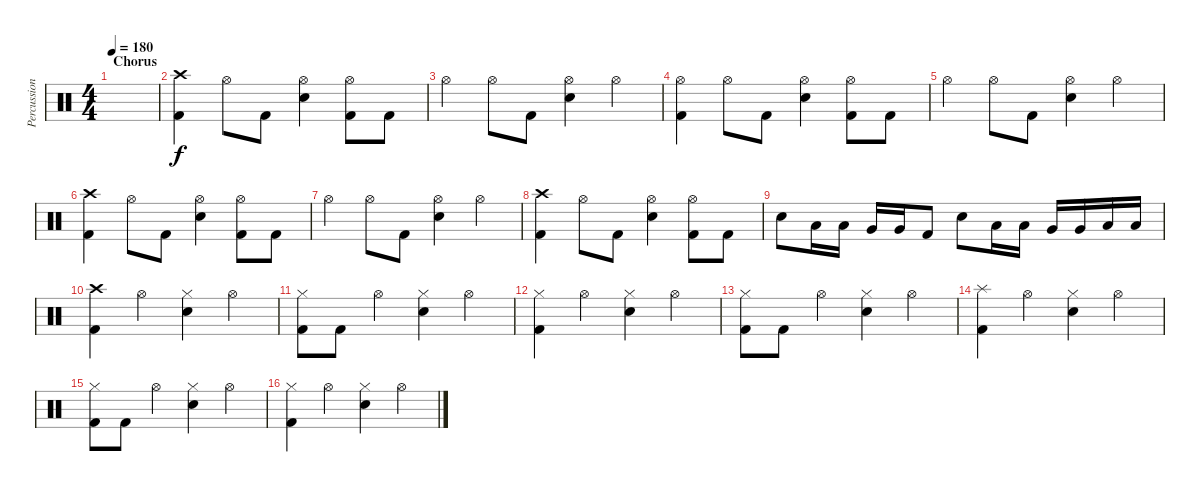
\track ("Percussion" "Percussion") {instrument percussion}
\staff {score}
\articulation defaults
\ts (4 4)
\section ("" "Chorus")
\tempo 180
\clef neutral
\ks c
|
("Crash high (hit)" "Kick (hit) 2").4 "Hi-Hat (open)".8 "Kick (hit) 2".8 ("Hi-Hat (open)" "Electric Snare (hit)").4 ("Hi-Hat (open)" "Kick (hit) 2").8 "Kick (hit) 2".8 |
"Hi-Hat (open)".4 "Hi-Hat (open)".8 "Kick (hit) 2".8 ("Hi-Hat (open)" "Electric Snare (hit)").4 "Hi-Hat (open)".4 |
("Hi-Hat (open)" "Kick (hit) 2").4 "Hi-Hat (open)".8 "Kick (hit) 2".8 ("Hi-Hat (open)" "Electric Snare (hit)").4 ("Hi-Hat (open)" "Kick (hit) 2").8 "Kick (hit) 2".8 |
"Hi-Hat (open)".4 "Hi-Hat (open)".8 "Kick (hit) 2".8 ("Hi-Hat (open)" "Electric Snare (hit)").4 "Hi-Hat (open)".4 |
("Crash high (hit)" "Kick (hit) 2").4 "Hi-Hat (open)".8 "Kick (hit) 2".8 ("Hi-Hat (open)" "Electric Snare (hit)").4 ("Hi-Hat (open)" "Kick (hit) 2").8 "Kick (hit) 2".8 |
"Hi-Hat (open)".4 "Hi-Hat (open)".8 "Kick (hit) 2".8 ("Hi-Hat (open)" "Electric Snare (hit)").4 "Hi-Hat (open)".4 |
("Crash high (hit)" "Kick (hit) 2").4 "Hi-Hat (open)".8 "Kick (hit) 2".8 ("Hi-Hat (open)" "Electric Snare (hit)").4 ("Hi-Hat (open)" "Kick (hit) 2").8 "Kick (hit) 2".8 |
"Electric Snare (hit)".8 "Low Tom (hit)".16 "Low Tom (hit)".16 "Very Low Tom (hit)".16 "Very Low Tom (hit)".16 "Kick (hit) 2".8 "Electric Snare (hit)".8 "Low Tom (hit)".16 "Low Tom (hit)".16 "Very Low Tom (hit)".16 "Very Low Tom (hit)".16 "Low Floor Tom (hit)".16 "Low Floor Tom (hit)".16 |
("Crash high (hit)" "Kick (hit) 2").4 "Hi-Hat (open)".4 ("Hi-Hat (closed)" "Electric Snare (hit)").4 "Hi-Hat (open)".4 |
("Hi-Hat (closed)" "Kick (hit) 2").8 "Kick (hit) 2".8 "Hi-Hat (open)".4 ("Hi-Hat (closed)" "Electric Snare (hit)").4 "Hi-Hat (open)".4 |
("Hi-Hat (closed)" "Kick (hit) 2").4 "Hi-Hat (open)".4 ("Hi-Hat (closed)" "Electric Snare (hit)").4 "Hi-Hat (open)".4 |
("Hi-Hat (closed)" "Kick (hit) 2").8 "Kick (hit) 2".8 "Hi-Hat (open)".4 ("Hi-Hat (closed)" "Electric Snare (hit)").4 "Hi-Hat (open)".4 |
("Splash (hit)" "Kick (hit) 2").4 "Hi-Hat (open)".4 ("Hi-Hat (closed)" "Electric Snare (hit)").4 "Hi-Hat (open)".4 |
("Hi-Hat (closed)" "Kick (hit) 2").8 "Kick (hit) 2".8 "Hi-Hat (open)".4 ("Hi-Hat (closed)" "Electric Snare (hit)").4 "Hi-Hat (open)".4 |
("Hi-Hat (closed)" "Kick (hit) 2").4 "Hi-Hat (open)".4 ("Hi-Hat (closed)" "Electric Snare (hit)").4 "Hi-Hat (open)".4
